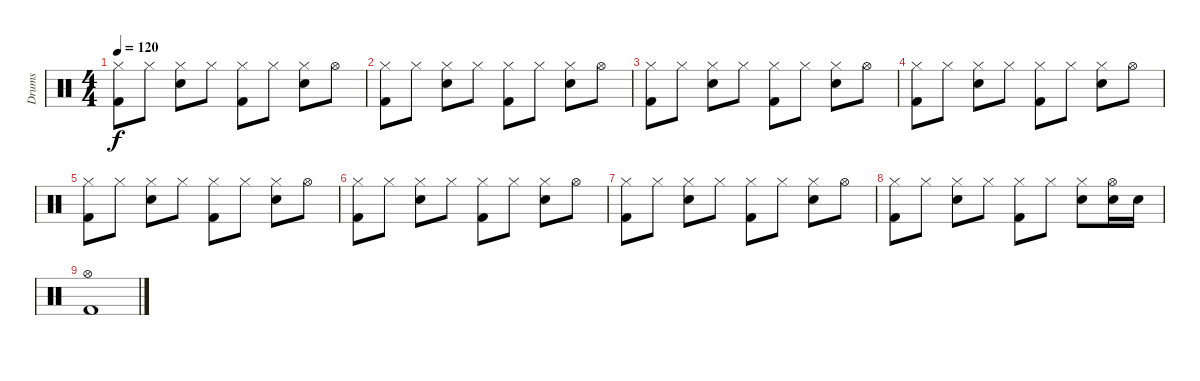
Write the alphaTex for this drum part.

\track ("Drums" "Drums") {instrument percussion}
\staff {score}
\articulation defaults
\ts (4 4)
\tempo 120
\clef neutral
\ks c
("Hi-Hat (closed)" "Kick (hit) 2").8{dy f} "Hi-Hat (closed)".8 ("Hi-Hat (closed)" "Electric Snare (hit)").8 "Hi-Hat (closed)".8 ("Hi-Hat (closed)" "Kick (hit) 2").8 "Hi-Hat (closed)".8 ("Hi-Hat (closed)" "Electric Snare (hit)").8 "Hi-Hat (open)".8 |
("Hi-Hat (closed)" "Kick (hit) 2").8 "Hi-Hat (closed)".8 ("Hi-Hat (closed)" "Electric Snare (hit)").8 "Hi-Hat (closed)".8 ("Hi-Hat (closed)" "Kick (hit) 2").8 "Hi-Hat (closed)".8 ("Hi-Hat (closed)" "Electric Snare (hit)").8 "Hi-Hat (open)".8 |
("Hi-Hat (closed)" "Kick (hit) 2").8 "Hi-Hat (closed)".8 ("Hi-Hat (closed)" "Electric Snare (hit)").8 "Hi-Hat (closed)".8 ("Hi-Hat (closed)" "Kick (hit) 2").8 "Hi-Hat (closed)".8 ("Hi-Hat (closed)" "Electric Snare (hit)").8 "Hi-Hat (open)".8 |
("Hi-Hat (closed)" "Kick (hit) 2").8 "Hi-Hat (closed)".8 ("Hi-Hat (closed)" "Electric Snare (hit)").8 "Hi-Hat (closed)".8 ("Hi-Hat (closed)" "Kick (hit) 2").8 "Hi-Hat (closed)".8 ("Hi-Hat (closed)" "Electric Snare (hit)").8 "Hi-Hat (open)".8 |
("Hi-Hat (closed)" "Kick (hit) 2").8 "Hi-Hat (closed)".8 ("Hi-Hat (closed)" "Electric Snare (hit)").8 "Hi-Hat (closed)".8 ("Hi-Hat (closed)" "Kick (hit) 2").8 "Hi-Hat (closed)".8 ("Hi-Hat (closed)" "Electric Snare (hit)").8 "Hi-Hat (open)".8 |
("Hi-Hat (closed)" "Kick (hit) 2").8 "Hi-Hat (closed)".8 ("Hi-Hat (closed)" "Electric Snare (hit)").8 "Hi-Hat (closed)".8 ("Hi-Hat (closed)" "Kick (hit) 2").8 "Hi-Hat (closed)".8 ("Hi-Hat (closed)" "Electric Snare (hit)").8 "Hi-Hat (open)".8 |
("Hi-Hat (closed)" "Kick (hit) 2").8 "Hi-Hat (closed)".8 ("Hi-Hat (closed)" "Electric Snare (hit)").8 "Hi-Hat (closed)".8 ("Hi-Hat (closed)" "Kick (hit) 2").8 "Hi-Hat (closed)".8 ("Hi-Hat (closed)" "Electric Snare (hit)").8 "Hi-Hat (open)".8 |
("Hi-Hat (closed)" "Kick (hit) 2").8 "Hi-Hat (closed)".8 ("Hi-Hat (closed)" "Electric Snare (hit)").8 "Hi-Hat (closed)".8 ("Hi-Hat (closed)" "Kick (hit) 2").8 "Hi-Hat (closed)".8 ("Hi-Hat (closed)" "Electric Snare (hit)").8 ("Electric Snare (hit)" "Hi-Hat (open)").16 "Electric Snare (hit)".16 |
("Hi-Hat (open)" "Kick (hit) 2").1
